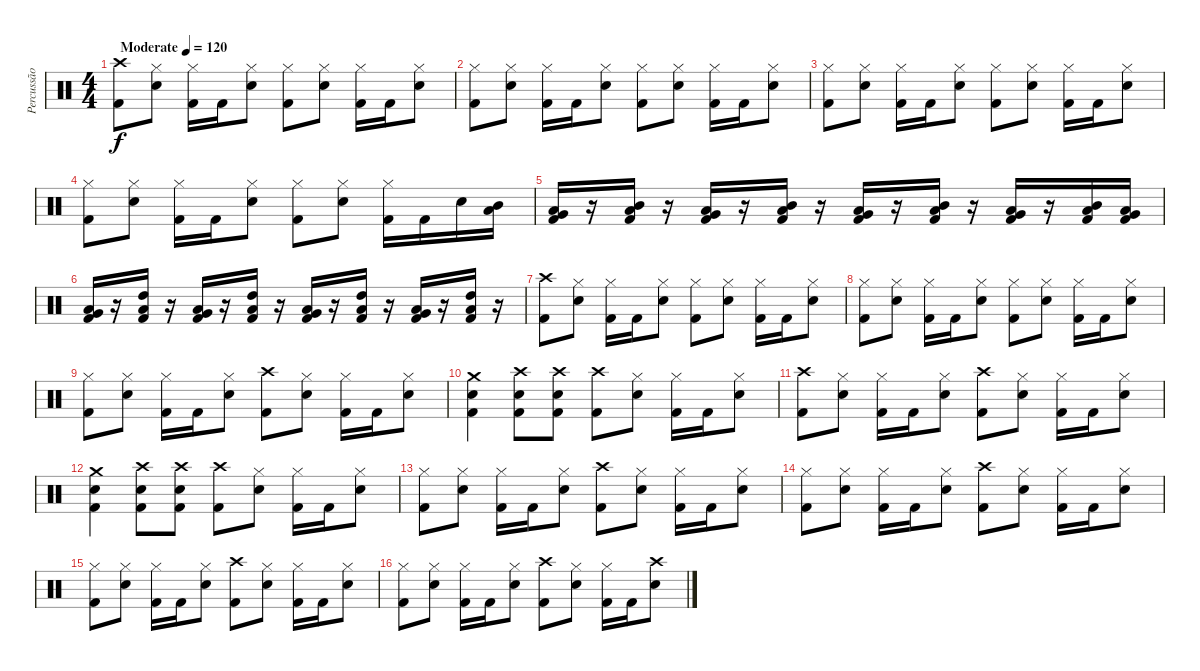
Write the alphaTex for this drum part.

\track ("Percussão" "Percussão") {instrument percussion}
\staff {score}
\articulation defaults
\ts (4 4)
\tempo (120 "Moderate")
\clef neutral
\ks c
("Crash high (hit)" "Kick (hit) 2").8{dy f} ("Hi-Hat (closed)" "Snare (hit) 2").8 ("Hi-Hat (closed)" "Kick (hit) 2").16 "Kick (hit) 2".16 ("Hi-Hat (closed)" "Snare (hit) 2").8 ("Hi-Hat (closed)" "Kick (hit) 2").8 ("Hi-Hat (closed)" "Snare (hit) 2").8 ("Hi-Hat (closed)" "Kick (hit) 2").16 "Kick (hit) 2".16 ("Hi-Hat (closed)" "Snare (hit) 2").8 |
("Hi-Hat (closed)" "Kick (hit) 2").8 ("Hi-Hat (closed)" "Snare (hit) 2").8 ("Hi-Hat (closed)" "Kick (hit) 2").16 "Kick (hit) 2".16 ("Hi-Hat (closed)" "Snare (hit) 2").8 ("Hi-Hat (closed)" "Kick (hit) 2").8 ("Hi-Hat (closed)" "Snare (hit) 2").8 ("Hi-Hat (closed)" "Kick (hit) 2").16 "Kick (hit) 2".16 ("Hi-Hat (closed)" "Snare (hit) 2").8 |
("Hi-Hat (closed)" "Kick (hit) 2").8 ("Hi-Hat (closed)" "Snare (hit) 2").8 ("Hi-Hat (closed)" "Kick (hit) 2").16 "Kick (hit) 2".16 ("Hi-Hat (closed)" "Snare (hit) 2").8 ("Hi-Hat (closed)" "Kick (hit) 2").8 ("Hi-Hat (closed)" "Snare (hit) 2").8 ("Hi-Hat (closed)" "Kick (hit) 2").16 "Kick (hit) 2".16 ("Hi-Hat (closed)" "Snare (hit) 2").8 |
("Hi-Hat (closed)" "Kick (hit) 2").8 ("Hi-Hat (closed)" "Snare (hit) 2").8 ("Hi-Hat (closed)" "Kick (hit) 2").16 "Kick (hit) 2".16 ("Hi-Hat (closed)" "Snare (hit) 2").8 ("Hi-Hat (closed)" "Kick (hit) 2").8 ("Hi-Hat (closed)" "Snare (hit) 2").8 ("Hi-Hat (closed)" "Kick (hit) 2").16 "Kick (hit) 2".16 "Snare (hit) 2".16 ("Mid Tom (hit)" "Low Tom (hit)").16 |
("Low Tom (hit)" "Very Low Tom (hit)" "Kick (hit) 2").16 r.16 ("Mid Tom (hit)" "Low Tom (hit)" "Kick (hit) 2").16 r.16 ("Low Tom (hit)" "Very Low Tom (hit)" "Kick (hit) 2").16 r.16 ("Mid Tom (hit)" "Low Tom (hit)" "Kick (hit) 2").16 r.16 ("Low Tom (hit)" "Very Low Tom (hit)" "Kick (hit) 2").16 r.16 ("Mid Tom (hit)" "Low Tom (hit)" "Kick (hit) 2").16 r.16 ("Low Tom (hit)" "Very Low Tom (hit)" "Kick (hit) 2").16 r.16 ("Mid Tom (hit)" "Low Tom (hit)" "Kick (hit) 2").16 ("Low Tom (hit)" "Very Low Tom (hit)" "Kick (hit) 2").16 |
("Low Tom (hit)" "Very Low Tom (hit)" "Kick (hit) 2").16 r.16 ("High Tom (hit)" "Low Tom (hit)" "Kick (hit) 2").16 r.16 ("Low Tom (hit)" "Very Low Tom (hit)" "Kick (hit) 2").16 r.16 ("High Tom (hit)" "Low Tom (hit)" "Kick (hit) 2").16 r.16 ("Low Tom (hit)" "Very Low Tom (hit)" "Kick (hit) 2").16 r.16 ("High Tom (hit)" "Low Tom (hit)" "Kick (hit) 2").16 r.16 ("Low Tom (hit)" "Very Low Tom (hit)" "Kick (hit) 2").16 r.16 ("High Tom (hit)" "Low Tom (hit)" "Kick (hit) 2").16 r.16 |
("Crash high (hit)" "Kick (hit) 2").8 ("Hi-Hat (closed)" "Snare (hit) 2").8 ("Hi-Hat (closed)" "Kick (hit) 2").16 "Kick (hit) 2".16 ("Hi-Hat (closed)" "Snare (hit) 2").8 ("Hi-Hat (closed)" "Kick (hit) 2").8 ("Hi-Hat (closed)" "Snare (hit) 2").8 ("Hi-Hat (closed)" "Kick (hit) 2").16 "Kick (hit) 2".16 ("Hi-Hat (closed)" "Snare (hit) 2").8 |
("Hi-Hat (closed)" "Kick (hit) 2").8 ("Hi-Hat (closed)" "Snare (hit) 2").8 ("Hi-Hat (closed)" "Kick (hit) 2").16 "Kick (hit) 2".16 ("Hi-Hat (closed)" "Snare (hit) 2").8 ("Hi-Hat (closed)" "Kick (hit) 2").8 ("Hi-Hat (closed)" "Snare (hit) 2").8 ("Hi-Hat (closed)" "Kick (hit) 2").16 "Kick (hit) 2".16 ("Hi-Hat (closed)" "Snare (hit) 2").8 |
("Hi-Hat (closed)" "Kick (hit) 2").8 ("Hi-Hat (closed)" "Snare (hit) 2").8 ("Hi-Hat (closed)" "Kick (hit) 2").16 "Kick (hit) 2".16 ("Hi-Hat (closed)" "Snare (hit) 2").8 ("Crash high (hit)" "Kick (hit) 2").8 ("Hi-Hat (closed)" "Snare (hit) 2").8 ("Hi-Hat (closed)" "Kick (hit) 2").16 "Kick (hit) 2".16 ("Hi-Hat (closed)" "Snare (hit) 2").8 |
("Crash medium (hit)" "Snare (hit) 2" "Kick (hit) 2").4 ("Crash high (hit)" "Snare (hit) 2" "Kick (hit) 2").8 ("Crash high (hit)" "Snare (hit) 2" "Kick (hit) 2").8 ("Crash high (hit)" "Kick (hit) 2").8 ("Hi-Hat (closed)" "Snare (hit) 2").8 ("Hi-Hat (closed)" "Kick (hit) 2").16 "Kick (hit) 2".16 ("Hi-Hat (closed)" "Snare (hit) 2").8 |
("Crash high (hit)" "Kick (hit) 2").8 ("Hi-Hat (closed)" "Snare (hit) 2").8 ("Hi-Hat (closed)" "Kick (hit) 2").16 "Kick (hit) 2".16 ("Hi-Hat (closed)" "Snare (hit) 2").8 ("Crash high (hit)" "Kick (hit) 2").8 ("Hi-Hat (closed)" "Snare (hit) 2").8 ("Hi-Hat (closed)" "Kick (hit) 2").16 "Kick (hit) 2".16 ("Hi-Hat (closed)" "Snare (hit) 2").8 |
("Crash medium (hit)" "Snare (hit) 2" "Kick (hit) 2").4 ("Crash high (hit)" "Snare (hit) 2" "Kick (hit) 2").8 ("Crash high (hit)" "Snare (hit) 2" "Kick (hit) 2").8 ("Crash high (hit)" "Kick (hit) 2").8 ("Hi-Hat (closed)" "Snare (hit) 2").8 ("Hi-Hat (closed)" "Kick (hit) 2").16 "Kick (hit) 2".16 ("Hi-Hat (closed)" "Snare (hit) 2").8 |
("Hi-Hat (closed)" "Kick (hit) 2").8 ("Hi-Hat (closed)" "Snare (hit) 2").8 ("Hi-Hat (closed)" "Kick (hit) 2").16 "Kick (hit) 2".16 ("Hi-Hat (closed)" "Snare (hit) 2").8 ("Crash high (hit)" "Kick (hit) 2").8 ("Hi-Hat (closed)" "Snare (hit) 2").8 ("Hi-Hat (closed)" "Kick (hit) 2").16 "Kick (hit) 2".16 ("Hi-Hat (closed)" "Snare (hit) 2").8 |
("Hi-Hat (closed)" "Kick (hit) 2").8 ("Hi-Hat (closed)" "Snare (hit) 2").8 ("Hi-Hat (closed)" "Kick (hit) 2").16 "Kick (hit) 2".16 ("Hi-Hat (closed)" "Snare (hit) 2").8 ("Crash high (hit)" "Kick (hit) 2").8 ("Hi-Hat (closed)" "Snare (hit) 2").8 ("Hi-Hat (closed)" "Kick (hit) 2").16 "Kick (hit) 2".16 ("Hi-Hat (closed)" "Snare (hit) 2").8 |
("Hi-Hat (closed)" "Kick (hit) 2").8 ("Hi-Hat (closed)" "Snare (hit) 2").8 ("Hi-Hat (closed)" "Kick (hit) 2").16 "Kick (hit) 2".16 ("Hi-Hat (closed)" "Snare (hit) 2").8 ("Crash high (hit)" "Kick (hit) 2").8 ("Hi-Hat (closed)" "Snare (hit) 2").8 ("Hi-Hat (closed)" "Kick (hit) 2").16 "Kick (hit) 2".16 ("Hi-Hat (closed)" "Snare (hit) 2").8 |
("Hi-Hat (closed)" "Kick (hit) 2").8 ("Hi-Hat (closed)" "Snare (hit) 2").8 ("Hi-Hat (closed)" "Kick (hit) 2").16 "Kick (hit) 2".16 ("Hi-Hat (closed)" "Snare (hit) 2").8 ("Crash high (hit)" "Kick (hit) 2").8 ("Hi-Hat (closed)" "Snare (hit) 2").8 ("Hi-Hat (closed)" "Kick (hit) 2").16 "Kick (hit) 2".16 ("Crash high (hit)" "Snare (hit) 2").8
